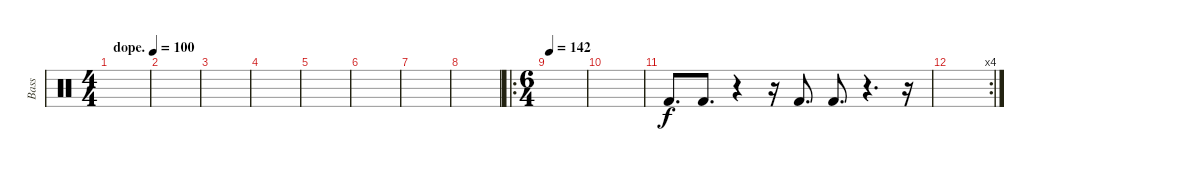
\track ("Bass" "Bass") {solo instrument percussion}
\staff {score}
\articulation defaults
\ts (4 4)
\tempo (100 "dope.")
\clef neutral
\ks c
|
|
|
|
|
|
|
|
\ro
\ts (6 4)
\tempo 142
|
|
"Kick (hit) 2".8{d} "Kick (hit) 2".8{d} r.4 r.16 "Kick (hit) 2".8{d} "Kick (hit) 2".8{d} r.4{d} r.16 |
\rc 4
